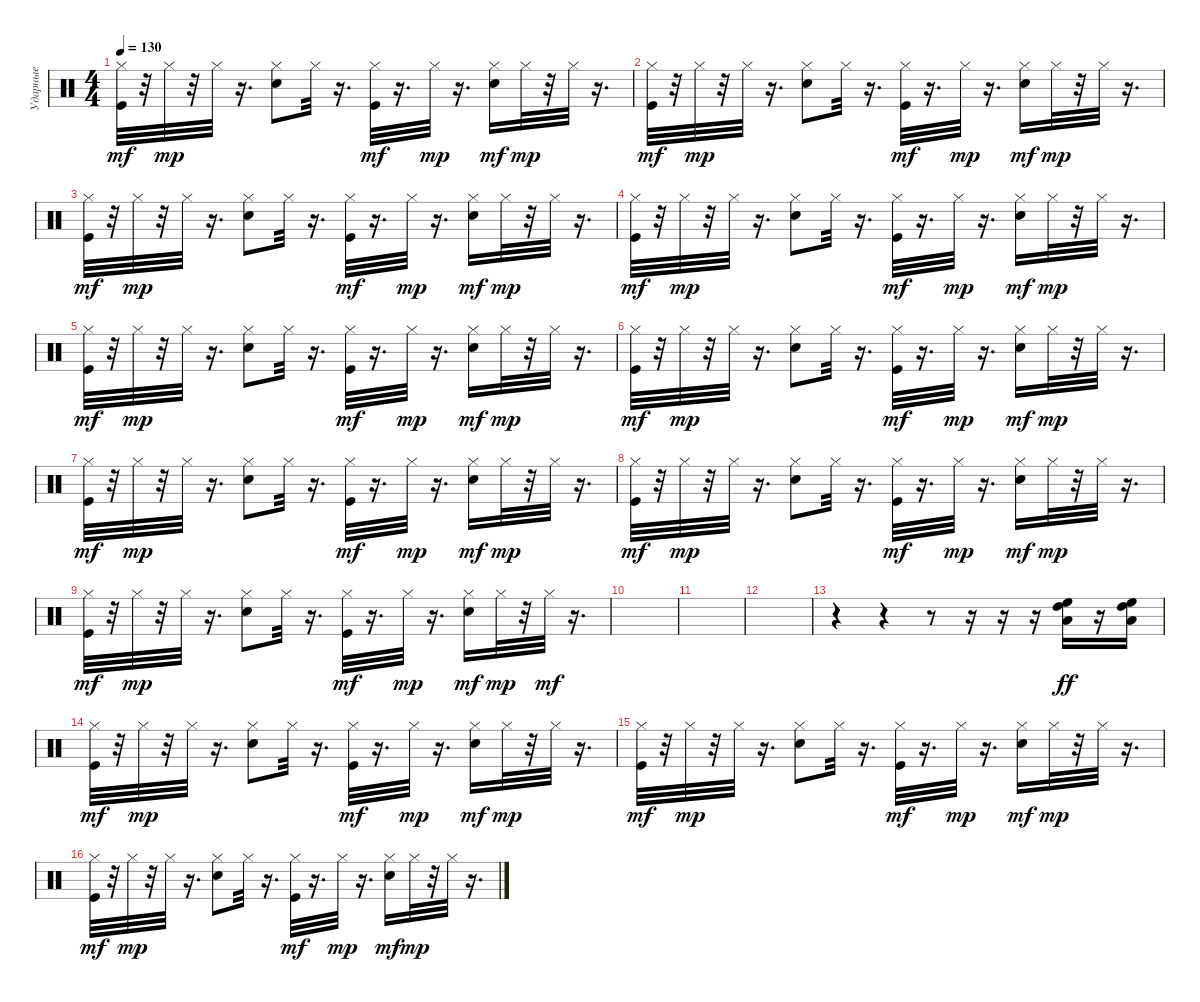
\track ("Ударные" "Ударные") {instrument percussion}
\staff {score}
\articulation defaults
\ts (4 4)
\tempo 130
\clef neutral
\ks c
("Kick (hit)" "Hi-Hat (closed)").32{dy mf} r.32 "Hi-Hat (closed)".32{dy mp} r.32 "Hi-Hat (closed)".32 r.16{d} ("Snare (hit) 2" "Hi-Hat (closed)").8 "Hi-Hat (closed)".32 r.16{d} ("Kick (hit)" "Hi-Hat (closed)").32{dy mf} r.16{d} "Hi-Hat (closed)".32{dy mp} r.16{d} ("Snare (hit) 2" "Hi-Hat (closed)").16{dy mf} "Hi-Hat (closed)".32{dy mp} r.32 "Hi-Hat (closed)".32 r.16{d} |
("Kick (hit)" "Hi-Hat (closed)").32{dy mf} r.32 "Hi-Hat (closed)".32{dy mp} r.32 "Hi-Hat (closed)".32 r.16{d} ("Snare (hit) 2" "Hi-Hat (closed)").8 "Hi-Hat (closed)".32 r.16{d} ("Kick (hit)" "Hi-Hat (closed)").32{dy mf} r.16{d} "Hi-Hat (closed)".32{dy mp} r.16{d} ("Snare (hit) 2" "Hi-Hat (closed)").16{dy mf} "Hi-Hat (closed)".32{dy mp} r.32 "Hi-Hat (closed)".32 r.16{d} |
("Kick (hit)" "Hi-Hat (closed)").32{dy mf} r.32 "Hi-Hat (closed)".32{dy mp} r.32 "Hi-Hat (closed)".32 r.16{d} ("Snare (hit) 2" "Hi-Hat (closed)").8 "Hi-Hat (closed)".32 r.16{d} ("Kick (hit)" "Hi-Hat (closed)").32{dy mf} r.16{d} "Hi-Hat (closed)".32{dy mp} r.16{d} ("Snare (hit) 2" "Hi-Hat (closed)").16{dy mf} "Hi-Hat (closed)".32{dy mp} r.32 "Hi-Hat (closed)".32 r.16{d} |
("Kick (hit)" "Hi-Hat (closed)").32{dy mf} r.32 "Hi-Hat (closed)".32{dy mp} r.32 "Hi-Hat (closed)".32 r.16{d} ("Snare (hit) 2" "Hi-Hat (closed)").8 "Hi-Hat (closed)".32 r.16{d} ("Kick (hit)" "Hi-Hat (closed)").32{dy mf} r.16{d} "Hi-Hat (closed)".32{dy mp} r.16{d} ("Snare (hit) 2" "Hi-Hat (closed)").16{dy mf} "Hi-Hat (closed)".32{dy mp} r.32 "Hi-Hat (closed)".32 r.16{d} |
("Kick (hit)" "Hi-Hat (closed)").32{dy mf} r.32 "Hi-Hat (closed)".32{dy mp} r.32 "Hi-Hat (closed)".32 r.16{d} ("Snare (hit) 2" "Hi-Hat (closed)").8 "Hi-Hat (closed)".32 r.16{d} ("Kick (hit)" "Hi-Hat (closed)").32{dy mf} r.16{d} "Hi-Hat (closed)".32{dy mp} r.16{d} ("Snare (hit) 2" "Hi-Hat (closed)").16{dy mf} "Hi-Hat (closed)".32{dy mp} r.32 "Hi-Hat (closed)".32 r.16{d} |
("Kick (hit)" "Hi-Hat (closed)").32{dy mf} r.32 "Hi-Hat (closed)".32{dy mp} r.32 "Hi-Hat (closed)".32 r.16{d} ("Snare (hit) 2" "Hi-Hat (closed)").8 "Hi-Hat (closed)".32 r.16{d} ("Kick (hit)" "Hi-Hat (closed)").32{dy mf} r.16{d} "Hi-Hat (closed)".32{dy mp} r.16{d} ("Snare (hit) 2" "Hi-Hat (closed)").16{dy mf} "Hi-Hat (closed)".32{dy mp} r.32 "Hi-Hat (closed)".32 r.16{d} |
("Kick (hit)" "Hi-Hat (closed)").32{dy mf} r.32 "Hi-Hat (closed)".32{dy mp} r.32 "Hi-Hat (closed)".32 r.16{d} ("Snare (hit) 2" "Hi-Hat (closed)").8 "Hi-Hat (closed)".32 r.16{d} ("Kick (hit)" "Hi-Hat (closed)").32{dy mf} r.16{d} "Hi-Hat (closed)".32{dy mp} r.16{d} ("Snare (hit) 2" "Hi-Hat (closed)").16{dy mf} "Hi-Hat (closed)".32{dy mp} r.32 "Hi-Hat (closed)".32 r.16{d} |
("Kick (hit)" "Hi-Hat (closed)").32{dy mf} r.32 "Hi-Hat (closed)".32{dy mp} r.32 "Hi-Hat (closed)".32 r.16{d} ("Snare (hit) 2" "Hi-Hat (closed)").8 "Hi-Hat (closed)".32 r.16{d} ("Kick (hit)" "Hi-Hat (closed)").32{dy mf} r.16{d} "Hi-Hat (closed)".32{dy mp} r.16{d} ("Snare (hit) 2" "Hi-Hat (closed)").16{dy mf} "Hi-Hat (closed)".32{dy mp} r.32 "Hi-Hat (closed)".32 r.16{d} |
("Kick (hit)" "Hi-Hat (closed)").32{dy mf} r.32 "Hi-Hat (closed)".32{dy mp} r.32 "Hi-Hat (closed)".32 r.16{d} ("Snare (hit) 2" "Hi-Hat (closed)").8 "Hi-Hat (closed)".32 r.16{d} ("Kick (hit)" "Hi-Hat (closed)").32{dy mf} r.16{d} "Hi-Hat (closed)".32{dy mp} r.16{d} ("Snare (hit) 2" "Hi-Hat (closed)").16{dy mf} "Hi-Hat (closed)".32{dy mp} r.32 "Hi-Hat (closed)".32{dy mf} r.16{d} |
|
|
|
r.4 r.4 r.8 r.16 r.16 r.16 ("High Floor Tom (hit)" "High Tom (hit)" "Low Tom (hit)").16{dy ff} r.16 ("High Floor Tom (hit)" "High Tom (hit)" "Low Tom (hit)").16 |
("Kick (hit)" "Hi-Hat (closed)").32{dy mf} r.32 "Hi-Hat (closed)".32{dy mp} r.32 "Hi-Hat (closed)".32 r.16{d} ("Snare (hit) 2" "Hi-Hat (closed)").8 "Hi-Hat (closed)".32 r.16{d} ("Kick (hit)" "Hi-Hat (closed)").32{dy mf} r.16{d} "Hi-Hat (closed)".32{dy mp} r.16{d} ("Snare (hit) 2" "Hi-Hat (closed)").16{dy mf} "Hi-Hat (closed)".32{dy mp} r.32 "Hi-Hat (closed)".32 r.16{d} |
("Kick (hit)" "Hi-Hat (closed)").32{dy mf} r.32 "Hi-Hat (closed)".32{dy mp} r.32 "Hi-Hat (closed)".32 r.16{d} ("Snare (hit) 2" "Hi-Hat (closed)").8 "Hi-Hat (closed)".32 r.16{d} ("Kick (hit)" "Hi-Hat (closed)").32{dy mf} r.16{d} "Hi-Hat (closed)".32{dy mp} r.16{d} ("Snare (hit) 2" "Hi-Hat (closed)").16{dy mf} "Hi-Hat (closed)".32{dy mp} r.32 "Hi-Hat (closed)".32 r.16{d} |
("Kick (hit)" "Hi-Hat (closed)").32{dy mf} r.32 "Hi-Hat (closed)".32{dy mp} r.32 "Hi-Hat (closed)".32 r.16{d} ("Snare (hit) 2" "Hi-Hat (closed)").8 "Hi-Hat (closed)".32 r.16{d} ("Kick (hit)" "Hi-Hat (closed)").32{dy mf} r.16{d} "Hi-Hat (closed)".32{dy mp} r.16{d} ("Snare (hit) 2" "Hi-Hat (closed)").16{dy mf} "Hi-Hat (closed)".32{dy mp} r.32 "Hi-Hat (closed)".32 r.16{d}
